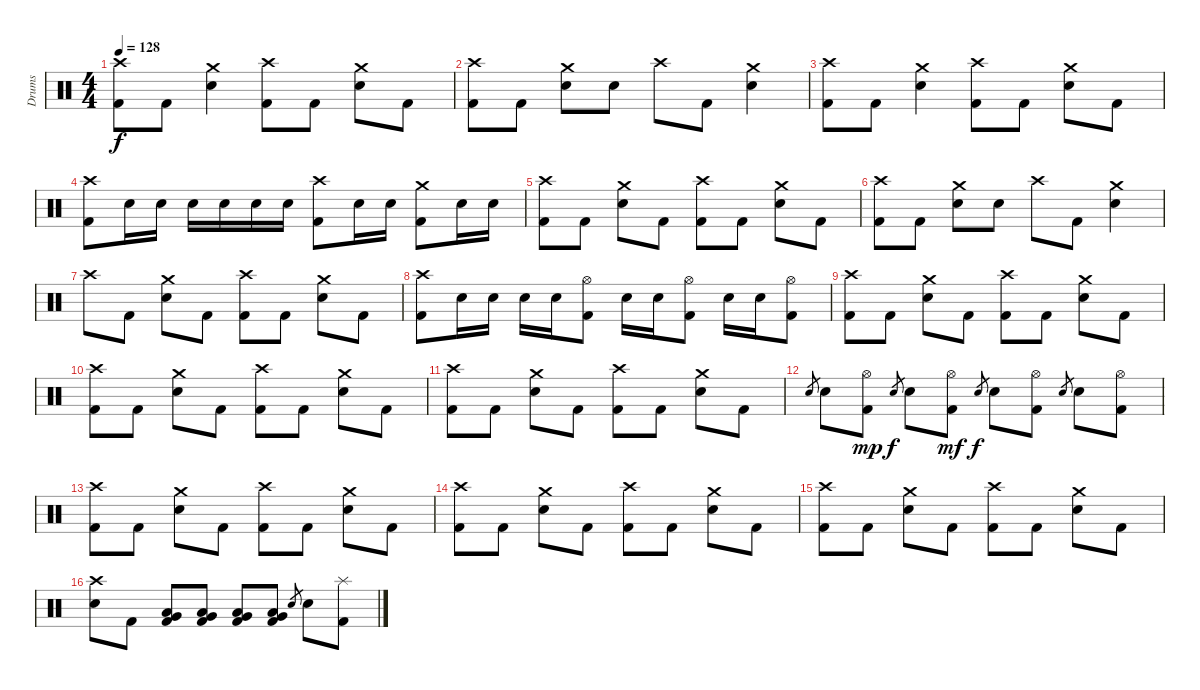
\track ("Drums" "Drums") {instrument percussion}
\staff {score}
\articulation defaults
\ts (4 4)
\tempo 128
\clef neutral
\ks c
("Crash high (hit)" "Kick (hit) 2").8{dy f} "Kick (hit) 2".8 ("Crash medium (hit)" "Electric Snare (hit)").4 ("Crash high (hit)" "Kick (hit) 2").8 "Kick (hit) 2".8 ("Crash medium (hit)" "Electric Snare (hit)").8 "Kick (hit) 2".8 |
("Crash high (hit)" "Kick (hit) 2").8 "Kick (hit) 2".8 ("Crash medium (hit)" "Electric Snare (hit)").8 "Electric Snare (hit)".8 "Crash high (hit)".8 "Kick (hit) 2".8 ("Crash medium (hit)" "Electric Snare (hit)").4 |
("Crash high (hit)" "Kick (hit) 2").8 "Kick (hit) 2".8 ("Crash medium (hit)" "Electric Snare (hit)").4 ("Crash high (hit)" "Kick (hit) 2").8 "Kick (hit) 2".8 ("Crash medium (hit)" "Electric Snare (hit)").8 "Kick (hit) 2".8 |
("Crash high (hit)" "Kick (hit) 2").8 "Electric Snare (hit)".16 "Electric Snare (hit)".16 "Electric Snare (hit)".16 "Electric Snare (hit)".16 "Electric Snare (hit)".16 "Electric Snare (hit)".16 ("Crash high (hit)" "Kick (hit) 2").8 "Electric Snare (hit)".16 "Electric Snare (hit)".16 ("Crash medium (hit)" "Kick (hit) 2").8 "Electric Snare (hit)".16 "Electric Snare (hit)".16 |
("Crash high (hit)" "Kick (hit) 2").8 "Kick (hit) 2".8 ("Crash medium (hit)" "Electric Snare (hit)").8 "Kick (hit) 2".8 ("Crash high (hit)" "Kick (hit) 2").8 "Kick (hit) 2".8 ("Crash medium (hit)" "Electric Snare (hit)").8 "Kick (hit) 2".8 |
("Crash high (hit)" "Kick (hit) 2").8 "Kick (hit) 2".8 ("Crash medium (hit)" "Electric Snare (hit)").8 "Electric Snare (hit)".8 "Crash high (hit)".8 "Kick (hit) 2".8 ("Crash medium (hit)" "Electric Snare (hit)").4 |
"Crash high (hit)".8 "Kick (hit) 2".8 ("Crash medium (hit)" "Electric Snare (hit)").8 "Kick (hit) 2".8 ("Crash high (hit)" "Kick (hit) 2").8 "Kick (hit) 2".8 ("Crash medium (hit)" "Electric Snare (hit)").8 "Kick (hit) 2".8 |
("Crash high (hit)" "Kick (hit) 2").8 "Electric Snare (hit)".16 "Electric Snare (hit)".16 "Electric Snare (hit)".16 "Electric Snare (hit)".16 ("Hi-Hat (open)" "Kick (hit) 2").8 "Electric Snare (hit)".16 "Electric Snare (hit)".16 ("Hi-Hat (open)" "Kick (hit) 2").8 "Electric Snare (hit)".16 "Electric Snare (hit)".16 ("Hi-Hat (open)" "Kick (hit) 2").8 |
("Crash high (hit)" "Kick (hit) 2").8 "Kick (hit) 2".8 ("Crash medium (hit)" "Electric Snare (hit)").8 "Kick (hit) 2".8 ("Crash high (hit)" "Kick (hit) 2").8 "Kick (hit) 2".8 ("Crash medium (hit)" "Electric Snare (hit)").8 "Kick (hit) 2".8 |
("Crash high (hit)" "Kick (hit) 2").8 "Kick (hit) 2".8 ("Crash medium (hit)" "Electric Snare (hit)").8 "Kick (hit) 2".8 ("Crash high (hit)" "Kick (hit) 2").8 "Kick (hit) 2".8 ("Crash medium (hit)" "Electric Snare (hit)").8 "Kick (hit) 2".8 |
("Crash high (hit)" "Kick (hit) 2").8 "Kick (hit) 2".8 ("Crash medium (hit)" "Electric Snare (hit)").8 "Kick (hit) 2".8 ("Crash high (hit)" "Kick (hit) 2").8 "Kick (hit) 2".8 ("Crash medium (hit)" "Electric Snare (hit)").8 "Kick (hit) 2".8 |
"Electric Snare (hit)".8{gr} "Electric Snare (hit)".8 ("Hi-Hat (open)" "Kick (hit) 2").8{dy mp} "Electric Snare (hit)".8{gr dy f} "Electric Snare (hit)".8 ("Hi-Hat (open)" "Kick (hit) 2").8{dy mf} "Electric Snare (hit)".8{gr dy f} "Electric Snare (hit)".8 ("Hi-Hat (open)" "Kick (hit) 2").8 "Electric Snare (hit)".8{gr} "Electric Snare (hit)".8 ("Hi-Hat (open)" "Kick (hit) 2").8 |
("Crash high (hit)" "Kick (hit) 2").8 "Kick (hit) 2".8 ("Crash medium (hit)" "Electric Snare (hit)").8 "Kick (hit) 2".8 ("Crash high (hit)" "Kick (hit) 2").8 "Kick (hit) 2".8 ("Crash medium (hit)" "Electric Snare (hit)").8 "Kick (hit) 2".8 |
("Crash high (hit)" "Kick (hit) 2").8 "Kick (hit) 2".8 ("Crash medium (hit)" "Electric Snare (hit)").8 "Kick (hit) 2".8 ("Crash high (hit)" "Kick (hit) 2").8 "Kick (hit) 2".8 ("Crash medium (hit)" "Electric Snare (hit)").8 "Kick (hit) 2".8 |
("Crash high (hit)" "Kick (hit) 2").8 "Kick (hit) 2".8 ("Crash medium (hit)" "Electric Snare (hit)").8 "Kick (hit) 2".8 ("Crash high (hit)" "Kick (hit) 2").8 "Kick (hit) 2".8 ("Crash medium (hit)" "Electric Snare (hit)").8 "Kick (hit) 2".8 |
("Crash high (hit)" "Electric Snare (hit)").8 "Kick (hit) 2".8 ("Low Tom (hit)" "Very Low Tom (hit)" "Kick (hit) 2").8 ("Low Tom (hit)" "Very Low Tom (hit)" "Kick (hit) 2").8 ("Low Tom (hit)" "Very Low Tom (hit)" "Kick (hit) 2").8 ("Low Tom (hit)" "Very Low Tom (hit)" "Kick (hit) 2").8 "Electric Snare (hit)".8{gr} "Electric Snare (hit)".8 ("Splash (hit)" "Kick (hit) 2").8
